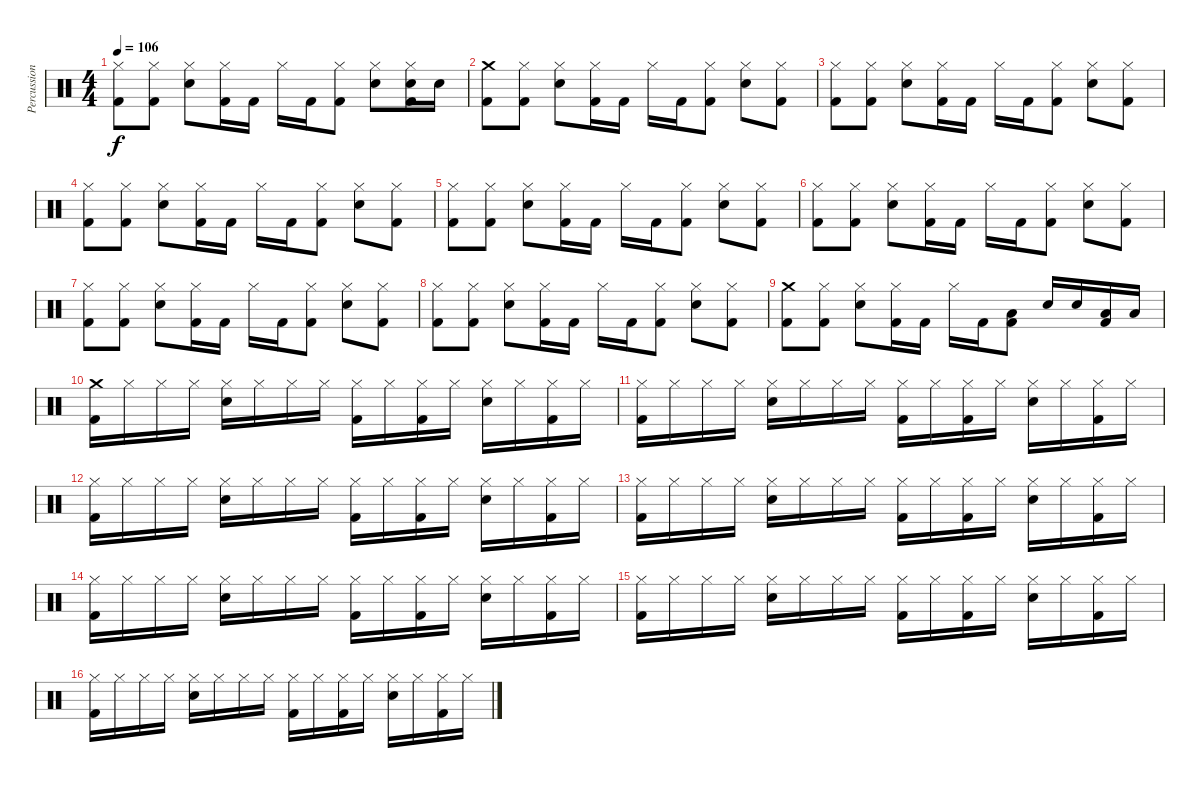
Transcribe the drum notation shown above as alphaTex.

\track ("Percussion" "Percussion") {instrument percussion}
\staff {score}
\articulation defaults
\ts (4 4)
\tempo 106
\clef neutral
\ks c
("Hi-Hat (closed)" "Kick (hit) 2").8{dy f} ("Hi-Hat (closed)" "Kick (hit) 2").8 ("Hi-Hat (closed)" "Snare (hit) 2").8 ("Hi-Hat (closed)" "Kick (hit) 2").16 "Kick (hit) 2".16 "Hi-Hat (closed)".16 "Kick (hit) 2".16 ("Hi-Hat (closed)" "Kick (hit) 2").8 ("Hi-Hat (closed)" "Snare (hit) 2").8 ("Hi-Hat (closed)" "Snare (hit) 2" "Kick (hit) 2").16 "Snare (hit) 2".16 |
("Crash medium (hit)" "Kick (hit) 2").8 ("Hi-Hat (closed)" "Kick (hit) 2").8 ("Hi-Hat (closed)" "Snare (hit) 2").8 ("Hi-Hat (closed)" "Kick (hit) 2").16 "Kick (hit) 2".16 "Hi-Hat (closed)".16 "Kick (hit) 2".16 ("Hi-Hat (closed)" "Kick (hit) 2").8 ("Hi-Hat (closed)" "Snare (hit) 2").8 ("Hi-Hat (closed)" "Kick (hit) 2").8 |
("Hi-Hat (closed)" "Kick (hit) 2").8 ("Hi-Hat (closed)" "Kick (hit) 2").8 ("Hi-Hat (closed)" "Snare (hit) 2").8 ("Hi-Hat (closed)" "Kick (hit) 2").16 "Kick (hit) 2".16 "Hi-Hat (closed)".16 "Kick (hit) 2".16 ("Hi-Hat (closed)" "Kick (hit) 2").8 ("Hi-Hat (closed)" "Snare (hit) 2").8 ("Hi-Hat (closed)" "Kick (hit) 2").8 |
("Hi-Hat (closed)" "Kick (hit) 2").8 ("Hi-Hat (closed)" "Kick (hit) 2").8 ("Hi-Hat (closed)" "Snare (hit) 2").8 ("Hi-Hat (closed)" "Kick (hit) 2").16 "Kick (hit) 2".16 "Hi-Hat (closed)".16 "Kick (hit) 2".16 ("Hi-Hat (closed)" "Kick (hit) 2").8 ("Hi-Hat (closed)" "Snare (hit) 2").8 ("Hi-Hat (closed)" "Kick (hit) 2").8 |
("Hi-Hat (closed)" "Kick (hit) 2").8 ("Hi-Hat (closed)" "Kick (hit) 2").8 ("Hi-Hat (closed)" "Snare (hit) 2").8 ("Hi-Hat (closed)" "Kick (hit) 2").16 "Kick (hit) 2".16 "Hi-Hat (closed)".16 "Kick (hit) 2".16 ("Hi-Hat (closed)" "Kick (hit) 2").8 ("Hi-Hat (closed)" "Snare (hit) 2").8 ("Hi-Hat (closed)" "Kick (hit) 2").8 |
("Hi-Hat (closed)" "Kick (hit) 2").8 ("Hi-Hat (closed)" "Kick (hit) 2").8 ("Hi-Hat (closed)" "Snare (hit) 2").8 ("Hi-Hat (closed)" "Kick (hit) 2").16 "Kick (hit) 2".16 "Hi-Hat (closed)".16 "Kick (hit) 2".16 ("Hi-Hat (closed)" "Kick (hit) 2").8 ("Hi-Hat (closed)" "Snare (hit) 2").8 ("Hi-Hat (closed)" "Kick (hit) 2").8 |
("Hi-Hat (closed)" "Kick (hit) 2").8 ("Hi-Hat (closed)" "Kick (hit) 2").8 ("Hi-Hat (closed)" "Snare (hit) 2").8 ("Hi-Hat (closed)" "Kick (hit) 2").16 "Kick (hit) 2".16 "Hi-Hat (closed)".16 "Kick (hit) 2".16 ("Hi-Hat (closed)" "Kick (hit) 2").8 ("Hi-Hat (closed)" "Snare (hit) 2").8 ("Hi-Hat (closed)" "Kick (hit) 2").8 |
("Hi-Hat (closed)" "Kick (hit) 2").8 ("Hi-Hat (closed)" "Kick (hit) 2").8 ("Hi-Hat (closed)" "Snare (hit) 2").8 ("Hi-Hat (closed)" "Kick (hit) 2").16 "Kick (hit) 2".16 "Hi-Hat (closed)".16 "Kick (hit) 2".16 ("Hi-Hat (closed)" "Kick (hit) 2").8 ("Hi-Hat (closed)" "Snare (hit) 2").8 ("Hi-Hat (closed)" "Kick (hit) 2").8 |
("Crash medium (hit)" "Kick (hit) 2").8 ("Hi-Hat (closed)" "Kick (hit) 2").8 ("Hi-Hat (closed)" "Snare (hit) 2").8 ("Hi-Hat (closed)" "Kick (hit) 2").16 "Kick (hit) 2".16 "Hi-Hat (closed)".16 "Kick (hit) 2".16 ("Low Tom (hit)" "Kick (hit) 2").8 "Snare (hit) 2".16 "Snare (hit) 2".16 ("Low Tom (hit)" "Kick (hit) 2").16 "Low Tom (hit)".16 |
("Crash medium (hit)" "Kick (hit) 2").16 "Hi-Hat (closed)".16 "Hi-Hat (closed)".16 "Hi-Hat (closed)".16 ("Hi-Hat (closed)" "Snare (hit) 2").16 "Hi-Hat (closed)".16 "Hi-Hat (closed)".16 "Hi-Hat (closed)".16 ("Hi-Hat (closed)" "Kick (hit) 2").16 "Hi-Hat (closed)".16 ("Hi-Hat (closed)" "Kick (hit) 2").16 "Hi-Hat (closed)".16 ("Hi-Hat (closed)" "Snare (hit) 2").16 "Hi-Hat (closed)".16 ("Hi-Hat (closed)" "Kick (hit) 2").16 "Hi-Hat (closed)".16 |
("Hi-Hat (closed)" "Kick (hit) 2").16 "Hi-Hat (closed)".16 "Hi-Hat (closed)".16 "Hi-Hat (closed)".16 ("Hi-Hat (closed)" "Snare (hit) 2").16 "Hi-Hat (closed)".16 "Hi-Hat (closed)".16 "Hi-Hat (closed)".16 ("Hi-Hat (closed)" "Kick (hit) 2").16 "Hi-Hat (closed)".16 ("Hi-Hat (closed)" "Kick (hit) 2").16 "Hi-Hat (closed)".16 ("Hi-Hat (closed)" "Snare (hit) 2").16 "Hi-Hat (closed)".16 ("Hi-Hat (closed)" "Kick (hit) 2").16 "Hi-Hat (closed)".16 |
("Hi-Hat (closed)" "Kick (hit) 2").16 "Hi-Hat (closed)".16 "Hi-Hat (closed)".16 "Hi-Hat (closed)".16 ("Hi-Hat (closed)" "Snare (hit) 2").16 "Hi-Hat (closed)".16 "Hi-Hat (closed)".16 "Hi-Hat (closed)".16 ("Hi-Hat (closed)" "Kick (hit) 2").16 "Hi-Hat (closed)".16 ("Hi-Hat (closed)" "Kick (hit) 2").16 "Hi-Hat (closed)".16 ("Hi-Hat (closed)" "Snare (hit) 2").16 "Hi-Hat (closed)".16 ("Hi-Hat (closed)" "Kick (hit) 2").16 "Hi-Hat (closed)".16 |
("Hi-Hat (closed)" "Kick (hit) 2").16 "Hi-Hat (closed)".16 "Hi-Hat (closed)".16 "Hi-Hat (closed)".16 ("Hi-Hat (closed)" "Snare (hit) 2").16 "Hi-Hat (closed)".16 "Hi-Hat (closed)".16 "Hi-Hat (closed)".16 ("Hi-Hat (closed)" "Kick (hit) 2").16 "Hi-Hat (closed)".16 ("Hi-Hat (closed)" "Kick (hit) 2").16 "Hi-Hat (closed)".16 ("Hi-Hat (closed)" "Snare (hit) 2").16 "Hi-Hat (closed)".16 ("Hi-Hat (closed)" "Kick (hit) 2").16 "Hi-Hat (closed)".16 |
("Hi-Hat (closed)" "Kick (hit) 2").16 "Hi-Hat (closed)".16 "Hi-Hat (closed)".16 "Hi-Hat (closed)".16 ("Hi-Hat (closed)" "Snare (hit) 2").16 "Hi-Hat (closed)".16 "Hi-Hat (closed)".16 "Hi-Hat (closed)".16 ("Hi-Hat (closed)" "Kick (hit) 2").16 "Hi-Hat (closed)".16 ("Hi-Hat (closed)" "Kick (hit) 2").16 "Hi-Hat (closed)".16 ("Hi-Hat (closed)" "Snare (hit) 2").16 "Hi-Hat (closed)".16 ("Hi-Hat (closed)" "Kick (hit) 2").16 "Hi-Hat (closed)".16 |
("Hi-Hat (closed)" "Kick (hit) 2").16 "Hi-Hat (closed)".16 "Hi-Hat (closed)".16 "Hi-Hat (closed)".16 ("Hi-Hat (closed)" "Snare (hit) 2").16 "Hi-Hat (closed)".16 "Hi-Hat (closed)".16 "Hi-Hat (closed)".16 ("Hi-Hat (closed)" "Kick (hit) 2").16 "Hi-Hat (closed)".16 ("Hi-Hat (closed)" "Kick (hit) 2").16 "Hi-Hat (closed)".16 ("Hi-Hat (closed)" "Snare (hit) 2").16 "Hi-Hat (closed)".16 ("Hi-Hat (closed)" "Kick (hit) 2").16 "Hi-Hat (closed)".16 |
("Hi-Hat (closed)" "Kick (hit) 2").16 "Hi-Hat (closed)".16 "Hi-Hat (closed)".16 "Hi-Hat (closed)".16 ("Hi-Hat (closed)" "Snare (hit) 2").16 "Hi-Hat (closed)".16 "Hi-Hat (closed)".16 "Hi-Hat (closed)".16 ("Hi-Hat (closed)" "Kick (hit) 2").16 "Hi-Hat (closed)".16 ("Hi-Hat (closed)" "Kick (hit) 2").16 "Hi-Hat (closed)".16 ("Hi-Hat (closed)" "Snare (hit) 2").16 "Hi-Hat (closed)".16 ("Hi-Hat (closed)" "Kick (hit) 2").16 "Hi-Hat (closed)".16
